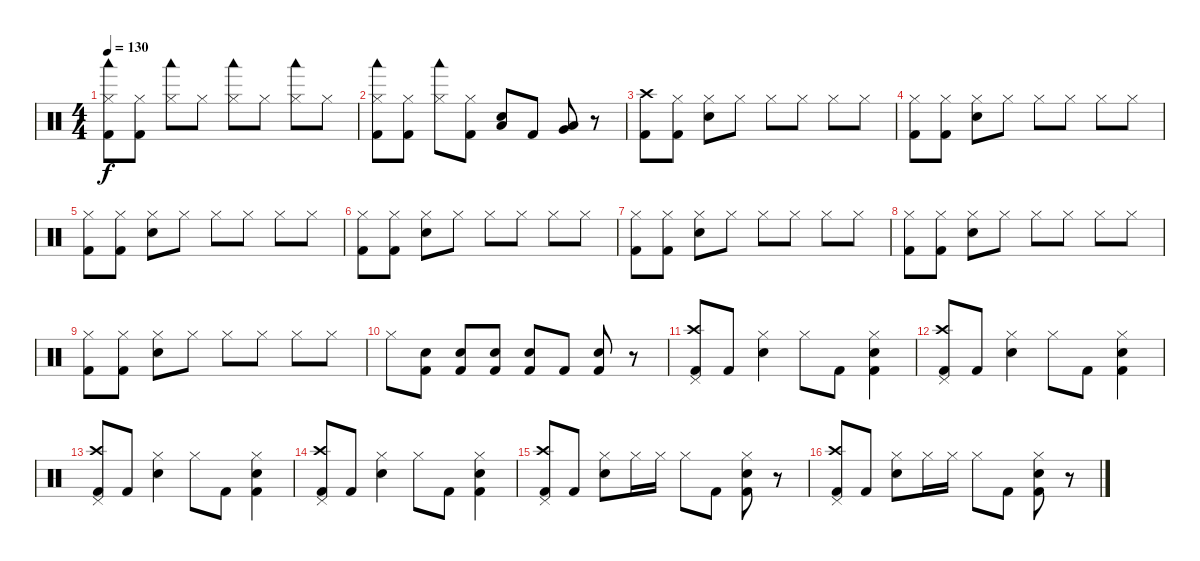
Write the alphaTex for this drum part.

\track "" {instrument percussion}
\staff {score}
\articulation defaults
\ts (4 4)
\tempo 130
\clef neutral
\ks c
("Woodblock low (hit)" "Hi-Hat (closed)" "Kick (hit) 2").8{dy f} ("Hi-Hat (closed)" "Kick (hit) 2").8 ("Woodblock low (hit)" "Hi-Hat (closed)").8 "Hi-Hat (closed)".8 ("Woodblock low (hit)" "Hi-Hat (closed)").8 "Hi-Hat (closed)".8 ("Woodblock low (hit)" "Hi-Hat (closed)").8 "Hi-Hat (closed)".8 |
("Woodblock low (hit)" "Hi-Hat (closed)" "Kick (hit) 2").8 ("Hi-Hat (closed)" "Kick (hit) 2").8 ("Woodblock low (hit)" "Hi-Hat (closed)").8 ("Hi-Hat (closed)" "Kick (hit) 2").8 ("Low Tom (hit)" "Electric Snare (hit)").8 "Kick (hit) 2".8 ("Very Low Tom (hit)" "Low Tom (hit)").8 r.8 |
("Crash high (hit)" "Kick (hit) 2").8 ("Hi-Hat (closed)" "Kick (hit) 2").8 ("Electric Snare (hit)" "Hi-Hat (closed)").8 "Hi-Hat (closed)".8 "Hi-Hat (closed)".8 "Hi-Hat (closed)".8 "Hi-Hat (closed)".8 "Hi-Hat (closed)".8 |
("Hi-Hat (closed)" "Kick (hit) 2").8 ("Hi-Hat (closed)" "Kick (hit) 2").8 ("Electric Snare (hit)" "Hi-Hat (closed)").8 "Hi-Hat (closed)".8 "Hi-Hat (closed)".8 "Hi-Hat (closed)".8 "Hi-Hat (closed)".8 "Hi-Hat (closed)".8 |
("Hi-Hat (closed)" "Kick (hit) 2").8 ("Hi-Hat (closed)" "Kick (hit) 2").8 ("Electric Snare (hit)" "Hi-Hat (closed)").8 "Hi-Hat (closed)".8 "Hi-Hat (closed)".8 "Hi-Hat (closed)".8 "Hi-Hat (closed)".8 "Hi-Hat (closed)".8 |
("Hi-Hat (closed)" "Kick (hit) 2").8 ("Hi-Hat (closed)" "Kick (hit) 2").8 ("Electric Snare (hit)" "Hi-Hat (closed)").8 "Hi-Hat (closed)".8 "Hi-Hat (closed)".8 "Hi-Hat (closed)".8 "Hi-Hat (closed)".8 "Hi-Hat (closed)".8 |
("Hi-Hat (closed)" "Kick (hit) 2").8 ("Hi-Hat (closed)" "Kick (hit) 2").8 ("Electric Snare (hit)" "Hi-Hat (closed)").8 "Hi-Hat (closed)".8 "Hi-Hat (closed)".8 "Hi-Hat (closed)".8 "Hi-Hat (closed)".8 "Hi-Hat (closed)".8 |
("Hi-Hat (closed)" "Kick (hit) 2").8 ("Hi-Hat (closed)" "Kick (hit) 2").8 ("Electric Snare (hit)" "Hi-Hat (closed)").8 "Hi-Hat (closed)".8 "Hi-Hat (closed)".8 "Hi-Hat (closed)".8 "Hi-Hat (closed)".8 "Hi-Hat (closed)".8 |
("Hi-Hat (closed)" "Kick (hit) 2").8 ("Hi-Hat (closed)" "Kick (hit) 2").8 ("Electric Snare (hit)" "Hi-Hat (closed)").8 "Hi-Hat (closed)".8 "Hi-Hat (closed)".8 "Hi-Hat (closed)".8 "Hi-Hat (closed)".8 "Hi-Hat (closed)".8 |
"Hi-Hat (closed)".8 ("Kick (hit) 2" "Electric Snare (hit)").8 ("Kick (hit) 2" "Electric Snare (hit)").8 ("Kick (hit) 2" "Electric Snare (hit)").8 ("Kick (hit) 2" "Electric Snare (hit)").8 "Kick (hit) 2".8 ("Electric Snare (hit)" "Kick (hit) 2").8 r.8 |
("Crash high (hit)" "Pedal Hi-Hat (hit)" "Kick (hit) 2").8 "Kick (hit) 2".8 ("Hi-Hat (closed)" "Electric Snare (hit)").4 "Hi-Hat (closed)".8 "Kick (hit) 2".8 ("Hi-Hat (closed)" "Kick (hit) 2" "Electric Snare (hit)").4 |
("Crash high (hit)" "Pedal Hi-Hat (hit)" "Kick (hit) 2").8 "Kick (hit) 2".8 ("Hi-Hat (closed)" "Electric Snare (hit)").4 "Hi-Hat (closed)".8 "Kick (hit) 2".8 ("Hi-Hat (closed)" "Kick (hit) 2" "Electric Snare (hit)").4 |
("Crash high (hit)" "Pedal Hi-Hat (hit)" "Kick (hit) 2").8 "Kick (hit) 2".8 ("Hi-Hat (closed)" "Electric Snare (hit)").4 "Hi-Hat (closed)".8 "Kick (hit) 2".8 ("Hi-Hat (closed)" "Kick (hit) 2" "Electric Snare (hit)").4 |
("Crash high (hit)" "Pedal Hi-Hat (hit)" "Kick (hit) 2").8 "Kick (hit) 2".8 ("Hi-Hat (closed)" "Electric Snare (hit)").4 "Hi-Hat (closed)".8 "Kick (hit) 2".8 ("Hi-Hat (closed)" "Kick (hit) 2" "Electric Snare (hit)").4 |
("Crash high (hit)" "Pedal Hi-Hat (hit)" "Kick (hit) 2").8 "Kick (hit) 2".8 ("Hi-Hat (closed)" "Electric Snare (hit)").8 "Hi-Hat (closed)".16 "Hi-Hat (closed)".16 "Hi-Hat (closed)".8 "Kick (hit) 2".8 ("Hi-Hat (closed)" "Electric Snare (hit)" "Kick (hit) 2").8 r.8 |
("Crash high (hit)" "Pedal Hi-Hat (hit)" "Kick (hit) 2").8 "Kick (hit) 2".8 ("Hi-Hat (closed)" "Electric Snare (hit)").8 "Hi-Hat (closed)".16 "Hi-Hat (closed)".16 "Hi-Hat (closed)".8 "Kick (hit) 2".8 ("Hi-Hat (closed)" "Electric Snare (hit)" "Kick (hit) 2").8 r.8
